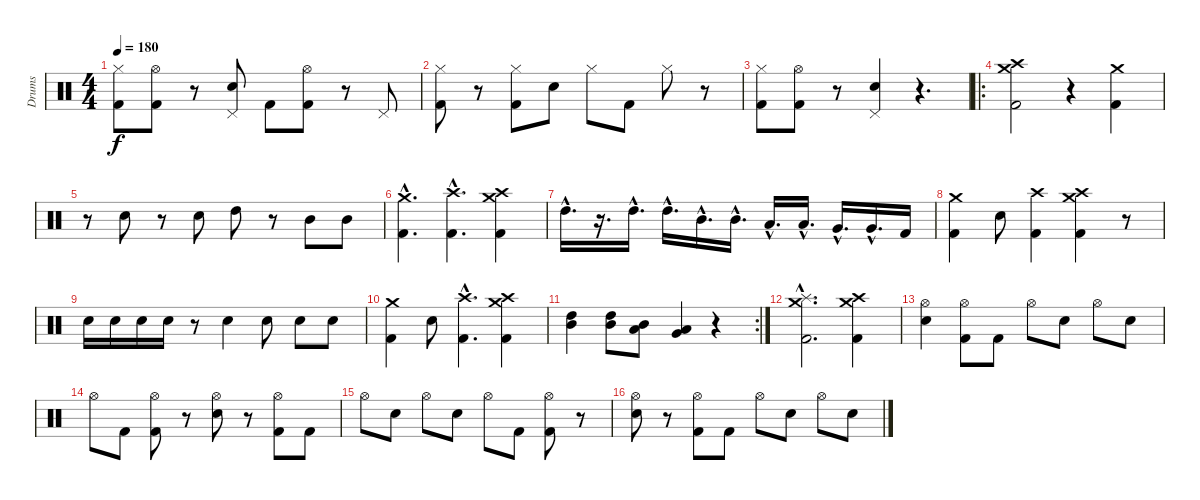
\track ("Drums" "Drums") {instrument percussion}
\staff {score}
\articulation defaults
\ts (4 4)
\tempo 180
\clef neutral
\ks c
("Hi-Hat (closed)" "Kick (hit) 2").8{dy f} ("Hi-Hat (open)" "Kick (hit) 2").8 r.8 ("Pedal Hi-Hat (hit)" "Electric Snare (hit)").8 "Kick (hit) 2".8 ("Hi-Hat (open)" "Kick (hit) 2").8 r.8 "Pedal Hi-Hat (hit)".8 |
("Hi-Hat (closed)" "Kick (hit) 2").8 r.8 ("Hi-Hat (closed)" "Kick (hit) 2").8 "Electric Snare (hit)".8 "Hi-Hat (closed)".8 "Kick (hit) 2".8 "Hi-Hat (closed)".8 r.8 |
("Hi-Hat (closed)" "Kick (hit) 2").8 ("Hi-Hat (open)" "Kick (hit) 2").8 r.8 ("Pedal Hi-Hat (hit)" "Electric Snare (hit)").4 r.4{d} |
\ro
("Crash high (hit)" "Crash medium (hit)" "Kick (hit) 2").2 r.4 ("Crash medium (hit)" "Kick (hit) 2").4 |
r.8 "Electric Snare (hit)".8 r.8 "Electric Snare (hit)".8 "High Tom (hit)".8 r.8 "Mid Tom (hit)".8 "Mid Tom (hit)".8 |
("Crash medium (hit)"{hac} "Kick (hit) 2"{hac}).4{d} ("Crash high (hit)"{hac} "Kick (hit) 2"{hac}).4{d} ("Crash high (hit)" "Crash medium (hit)" "Kick (hit) 2").4 |
"High Tom (hit)"{hac}.16{d} r.16{d} "High Tom (hit)"{hac}.16{d} "High Tom (hit)"{hac}.16{d} "Mid Tom (hit)"{hac}.16{d} "Mid Tom (hit)"{hac}.16{d} "Low Tom (hit)"{hac}.16{d} "Low Tom (hit)"{hac}.16{d} "Very Low Tom (hit)"{hac}.16{d} "Very Low Tom (hit)"{hac}.16{d} "Kick (hit) 2".16 |
("Crash medium (hit)" "Kick (hit) 2").4 "Electric Snare (hit)".8 ("Crash high (hit)" "Kick (hit) 2").4 ("Crash high (hit)" "Crash medium (hit)" "Kick (hit) 2").4 r.8 |
"Electric Snare (hit)".16 "Electric Snare (hit)".16 "Electric Snare (hit)".16 "Electric Snare (hit)".16 r.8 "Electric Snare (hit)".4 "Electric Snare (hit)".8 "Electric Snare (hit)".8 "Electric Snare (hit)".8 |
("Crash medium (hit)" "Kick (hit) 2").4 "Electric Snare (hit)".8 ("Crash high (hit)"{hac} "Kick (hit) 2"{hac}).4{d} ("Crash high (hit)" "Crash medium (hit)" "Kick (hit) 2").4 |
\rc 2
("Mid Tom (hit)" "High Tom (hit)").4 ("Mid Tom (hit)" "High Tom (hit)").8 ("Low Tom (hit)" "Mid Tom (hit)").8 ("Very Low Tom (hit)" "Low Tom (hit)").4 r.4 |
("Crash medium (hit)"{hac} "Splash (hit)"{hac} "Kick (hit) 2"{hac}).2{d} ("Crash high (hit)" "Crash medium (hit)" "Kick (hit) 2").4 |
("Hi-Hat (open)" "Electric Snare (hit)").4 ("Hi-Hat (open)" "Kick (hit) 2").8 "Kick (hit) 2".8 "Hi-Hat (open)".8 "Electric Snare (hit)".8 "Hi-Hat (open)".8 "Electric Snare (hit)".8 |
"Hi-Hat (open)".8 "Kick (hit) 2".8 ("Hi-Hat (open)" "Kick (hit) 2").8 r.8 ("Hi-Hat (open)" "Electric Snare (hit)").8 r.8 ("Hi-Hat (open)" "Kick (hit) 2").8 "Kick (hit) 2".8 |
"Hi-Hat (open)".8 "Electric Snare (hit)".8 "Hi-Hat (open)".8 "Electric Snare (hit)".8 "Hi-Hat (open)".8 "Kick (hit) 2".8 ("Hi-Hat (open)" "Kick (hit) 2").8 r.8 |
("Hi-Hat (open)" "Electric Snare (hit)").8 r.8 ("Hi-Hat (open)" "Kick (hit) 2").8 "Kick (hit) 2".8 "Hi-Hat (open)".8 "Electric Snare (hit)".8 "Hi-Hat (open)".8 "Electric Snare (hit)".8
